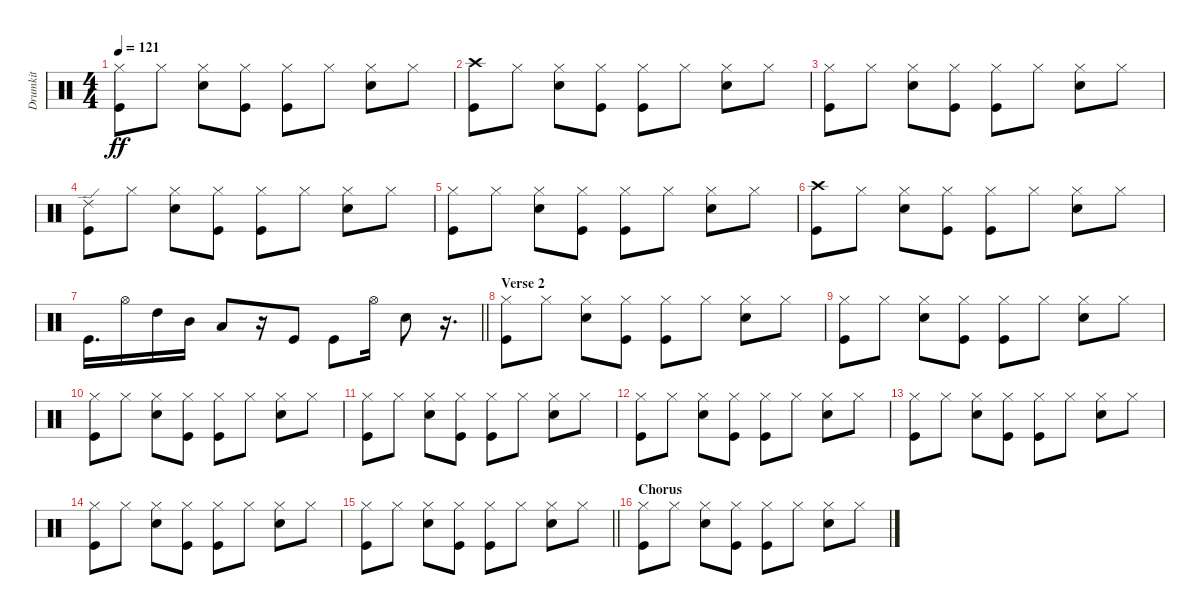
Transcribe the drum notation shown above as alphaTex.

\track ("Drumkit" "Drumkit") {instrument percussion}
\staff {score}
\articulation defaults
\ts (4 4)
\tempo 121
\clef neutral
\ks c
("Kick (hit)" "Hi-Hat (closed)").8{dy ff} "Hi-Hat (closed)".8 ("Hi-Hat (closed)" "Snare (hit) 2").8 ("Kick (hit)" "Hi-Hat (closed)").8 ("Hi-Hat (closed)" "Kick (hit)").8 "Hi-Hat (closed)".8 ("Hi-Hat (closed)" "Snare (hit) 2").8 "Hi-Hat (closed)".8 |
("Kick (hit)" "Crash high (hit)").8 "Hi-Hat (closed)".8 ("Hi-Hat (closed)" "Snare (hit) 2").8 ("Kick (hit)" "Hi-Hat (closed)").8 ("Hi-Hat (closed)" "Kick (hit)").8 "Hi-Hat (closed)".8 ("Hi-Hat (closed)" "Snare (hit) 2").8 "Hi-Hat (closed)".8 |
("Kick (hit)" "Hi-Hat (closed)").8 "Hi-Hat (closed)".8 ("Hi-Hat (closed)" "Snare (hit) 2").8 ("Kick (hit)" "Hi-Hat (closed)").8 ("Hi-Hat (closed)" "Kick (hit)").8 "Hi-Hat (closed)".8 ("Hi-Hat (closed)" "Snare (hit) 2").8 "Hi-Hat (closed)".8 |
("Kick (hit)" "Ride (edge) 2").8 "Hi-Hat (closed)".8 ("Hi-Hat (closed)" "Snare (hit) 2").8 ("Kick (hit)" "Hi-Hat (closed)").8 ("Hi-Hat (closed)" "Kick (hit)").8 "Hi-Hat (closed)".8 ("Hi-Hat (closed)" "Snare (hit) 2").8 "Hi-Hat (closed)".8 |
("Kick (hit)" "Hi-Hat (closed)").8 "Hi-Hat (closed)".8 ("Hi-Hat (closed)" "Snare (hit) 2").8 ("Kick (hit)" "Hi-Hat (closed)").8 ("Hi-Hat (closed)" "Kick (hit)").8 "Hi-Hat (closed)".8 ("Hi-Hat (closed)" "Snare (hit) 2").8 "Hi-Hat (closed)".8 |
("Kick (hit)" "Crash high (hit)").8 "Hi-Hat (closed)".8 ("Hi-Hat (closed)" "Snare (hit) 2").8 ("Kick (hit)" "Hi-Hat (closed)").8 ("Hi-Hat (closed)" "Kick (hit)").8 "Hi-Hat (closed)".8 ("Hi-Hat (closed)" "Snare (hit) 2").8 "Hi-Hat (closed)".8 |
\barLineRight lightlight "Kick (hit)".16{d} "Hi-Hat (open)".16 "High Tom (hit)".16 "Mid Tom (hit)".16 "Low Tom (hit)".8
r.16 "Kick (hit)".8 "Kick (hit)".8 "Hi-Hat (open)".16 "Snare (hit) 2".8 r.16{d} |
\section ("" "Verse 2")
("Kick (hit)" "Hi-Hat (closed)").8 "Hi-Hat (closed)".8 ("Hi-Hat (closed)" "Snare (hit) 2").8 ("Kick (hit)" "Hi-Hat (closed)").8 ("Hi-Hat (closed)" "Kick (hit)").8 "Hi-Hat (closed)".8 ("Hi-Hat (closed)" "Snare (hit) 2").8 "Hi-Hat (closed)".8 |
("Kick (hit)" "Hi-Hat (closed)").8 "Hi-Hat (closed)".8 ("Hi-Hat (closed)" "Snare (hit) 2").8 ("Kick (hit)" "Hi-Hat (closed)").8 ("Hi-Hat (closed)" "Kick (hit)").8 "Hi-Hat (closed)".8 ("Hi-Hat (closed)" "Snare (hit) 2").8 "Hi-Hat (closed)".8 |
("Kick (hit)" "Hi-Hat (closed)").8 "Hi-Hat (closed)".8 ("Hi-Hat (closed)" "Snare (hit) 2").8 ("Kick (hit)" "Hi-Hat (closed)").8 ("Hi-Hat (closed)" "Kick (hit)").8 "Hi-Hat (closed)".8 ("Hi-Hat (closed)" "Snare (hit) 2").8 "Hi-Hat (closed)".8 |
("Kick (hit)" "Hi-Hat (closed)").8 "Hi-Hat (closed)".8 ("Hi-Hat (closed)" "Snare (hit) 2").8 ("Kick (hit)" "Hi-Hat (closed)").8 ("Hi-Hat (closed)" "Kick (hit)").8 "Hi-Hat (closed)".8 ("Hi-Hat (closed)" "Snare (hit) 2").8 "Hi-Hat (closed)".8 |
("Kick (hit)" "Hi-Hat (closed)").8 "Hi-Hat (closed)".8 ("Hi-Hat (closed)" "Snare (hit) 2").8 ("Kick (hit)" "Hi-Hat (closed)").8 ("Hi-Hat (closed)" "Kick (hit)").8 "Hi-Hat (closed)".8 ("Hi-Hat (closed)" "Snare (hit) 2").8 "Hi-Hat (closed)".8 |
("Kick (hit)" "Hi-Hat (closed)").8 "Hi-Hat (closed)".8 ("Hi-Hat (closed)" "Snare (hit) 2").8 ("Kick (hit)" "Hi-Hat (closed)").8 ("Hi-Hat (closed)" "Kick (hit)").8 "Hi-Hat (closed)".8 ("Hi-Hat (closed)" "Snare (hit) 2").8 "Hi-Hat (closed)".8 |
("Kick (hit)" "Hi-Hat (closed)").8 "Hi-Hat (closed)".8 ("Hi-Hat (closed)" "Snare (hit) 2").8 ("Kick (hit)" "Hi-Hat (closed)").8 ("Hi-Hat (closed)" "Kick (hit)").8 "Hi-Hat (closed)".8 ("Hi-Hat (closed)" "Snare (hit) 2").8 "Hi-Hat (closed)".8 |
\barLineRight lightlight
("Kick (hit)" "Hi-Hat (closed)").8 "Hi-Hat (closed)".8 ("Hi-Hat (closed)" "Snare (hit) 2").8 ("Kick (hit)" "Hi-Hat (closed)").8 ("Hi-Hat (closed)" "Kick (hit)").8 "Hi-Hat (closed)".8 ("Hi-Hat (closed)" "Snare (hit) 2").8 "Hi-Hat (closed)".8 |
\section ("" "Chorus")
("Kick (hit)" "Hi-Hat (closed)").8 "Hi-Hat (closed)".8 ("Hi-Hat (closed)" "Snare (hit) 2").8 ("Kick (hit)" "Hi-Hat (closed)").8 ("Hi-Hat (closed)" "Kick (hit)").8 "Hi-Hat (closed)".8 ("Hi-Hat (closed)" "Snare (hit) 2").8 "Hi-Hat (closed)".8
